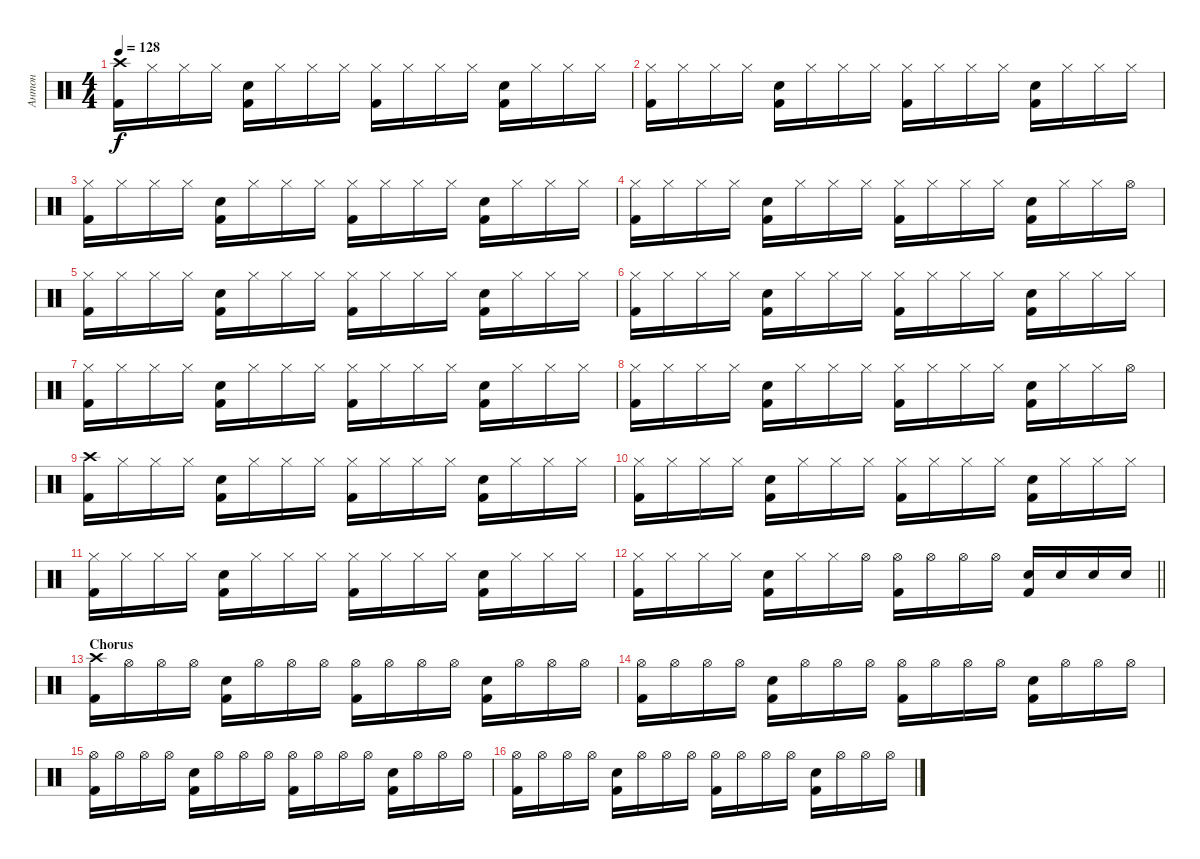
\track ("Антон" "Антон") {instrument percussion}
\staff {score}
\articulation defaults
\ts (4 4)
\tempo 128
\clef neutral
\ks c
("Crash high (hit)" "Kick (hit) 2").16{dy f} "Hi-Hat (closed)".16 "Hi-Hat (closed)".16 "Hi-Hat (closed)".16 ("Snare (hit) 2" "Kick (hit) 2").16 "Hi-Hat (closed)".16 "Hi-Hat (closed)".16 "Hi-Hat (closed)".16 ("Hi-Hat (closed)" "Kick (hit) 2").16 "Hi-Hat (closed)".16 "Hi-Hat (closed)".16 "Hi-Hat (closed)".16 ("Snare (hit) 2" "Kick (hit) 2").16 "Hi-Hat (closed)".16 "Hi-Hat (closed)".16 "Hi-Hat (closed)".16 |
("Hi-Hat (closed)" "Kick (hit) 2").16 "Hi-Hat (closed)".16 "Hi-Hat (closed)".16 "Hi-Hat (closed)".16 ("Snare (hit) 2" "Kick (hit) 2").16 "Hi-Hat (closed)".16 "Hi-Hat (closed)".16 "Hi-Hat (closed)".16 ("Hi-Hat (closed)" "Kick (hit) 2").16 "Hi-Hat (closed)".16 "Hi-Hat (closed)".16 "Hi-Hat (closed)".16 ("Snare (hit) 2" "Kick (hit) 2").16 "Hi-Hat (closed)".16 "Hi-Hat (closed)".16 "Hi-Hat (closed)".16 |
("Hi-Hat (closed)" "Kick (hit) 2").16 "Hi-Hat (closed)".16 "Hi-Hat (closed)".16 "Hi-Hat (closed)".16 ("Snare (hit) 2" "Kick (hit) 2").16 "Hi-Hat (closed)".16 "Hi-Hat (closed)".16 "Hi-Hat (closed)".16 ("Hi-Hat (closed)" "Kick (hit) 2").16 "Hi-Hat (closed)".16 "Hi-Hat (closed)".16 "Hi-Hat (closed)".16 ("Snare (hit) 2" "Kick (hit) 2").16 "Hi-Hat (closed)".16 "Hi-Hat (closed)".16 "Hi-Hat (closed)".16 |
("Hi-Hat (closed)" "Kick (hit) 2").16 "Hi-Hat (closed)".16 "Hi-Hat (closed)".16 "Hi-Hat (closed)".16 ("Snare (hit) 2" "Kick (hit) 2").16 "Hi-Hat (closed)".16 "Hi-Hat (closed)".16 "Hi-Hat (closed)".16 ("Hi-Hat (closed)" "Kick (hit) 2").16 "Hi-Hat (closed)".16 "Hi-Hat (closed)".16 "Hi-Hat (closed)".16 ("Snare (hit) 2" "Kick (hit) 2").16 "Hi-Hat (closed)".16 "Hi-Hat (closed)".16 "Hi-Hat (open)".16 |
("Hi-Hat (closed)" "Kick (hit) 2").16 "Hi-Hat (closed)".16 "Hi-Hat (closed)".16 "Hi-Hat (closed)".16 ("Snare (hit) 2" "Kick (hit) 2").16 "Hi-Hat (closed)".16 "Hi-Hat (closed)".16 "Hi-Hat (closed)".16 ("Hi-Hat (closed)" "Kick (hit) 2").16 "Hi-Hat (closed)".16 "Hi-Hat (closed)".16 "Hi-Hat (closed)".16 ("Snare (hit) 2" "Kick (hit) 2").16 "Hi-Hat (closed)".16 "Hi-Hat (closed)".16 "Hi-Hat (closed)".16 |
("Hi-Hat (closed)" "Kick (hit) 2").16 "Hi-Hat (closed)".16 "Hi-Hat (closed)".16 "Hi-Hat (closed)".16 ("Snare (hit) 2" "Kick (hit) 2").16 "Hi-Hat (closed)".16 "Hi-Hat (closed)".16 "Hi-Hat (closed)".16 ("Hi-Hat (closed)" "Kick (hit) 2").16 "Hi-Hat (closed)".16 "Hi-Hat (closed)".16 "Hi-Hat (closed)".16 ("Snare (hit) 2" "Kick (hit) 2").16 "Hi-Hat (closed)".16 "Hi-Hat (closed)".16 "Hi-Hat (closed)".16 |
("Hi-Hat (closed)" "Kick (hit) 2").16 "Hi-Hat (closed)".16 "Hi-Hat (closed)".16 "Hi-Hat (closed)".16 ("Snare (hit) 2" "Kick (hit) 2").16 "Hi-Hat (closed)".16 "Hi-Hat (closed)".16 "Hi-Hat (closed)".16 ("Hi-Hat (closed)" "Kick (hit) 2").16 "Hi-Hat (closed)".16 "Hi-Hat (closed)".16 "Hi-Hat (closed)".16 ("Snare (hit) 2" "Kick (hit) 2").16 "Hi-Hat (closed)".16 "Hi-Hat (closed)".16 "Hi-Hat (closed)".16 |
("Hi-Hat (closed)" "Kick (hit) 2").16 "Hi-Hat (closed)".16 "Hi-Hat (closed)".16 "Hi-Hat (closed)".16 ("Snare (hit) 2" "Kick (hit) 2").16 "Hi-Hat (closed)".16 "Hi-Hat (closed)".16 "Hi-Hat (closed)".16 ("Hi-Hat (closed)" "Kick (hit) 2").16 "Hi-Hat (closed)".16 "Hi-Hat (closed)".16 "Hi-Hat (closed)".16 ("Snare (hit) 2" "Kick (hit) 2").16 "Hi-Hat (closed)".16 "Hi-Hat (closed)".16 "Hi-Hat (open)".16 |
("Crash high (hit)" "Kick (hit) 2").16 "Hi-Hat (closed)".16 "Hi-Hat (closed)".16 "Hi-Hat (closed)".16 ("Snare (hit) 2" "Kick (hit) 2").16 "Hi-Hat (closed)".16 "Hi-Hat (closed)".16 "Hi-Hat (closed)".16 ("Hi-Hat (closed)" "Kick (hit) 2").16 "Hi-Hat (closed)".16 "Hi-Hat (closed)".16 "Hi-Hat (closed)".16 ("Snare (hit) 2" "Kick (hit) 2").16 "Hi-Hat (closed)".16 "Hi-Hat (closed)".16 "Hi-Hat (closed)".16 |
("Hi-Hat (closed)" "Kick (hit) 2").16 "Hi-Hat (closed)".16 "Hi-Hat (closed)".16 "Hi-Hat (closed)".16 ("Snare (hit) 2" "Kick (hit) 2").16 "Hi-Hat (closed)".16 "Hi-Hat (closed)".16 "Hi-Hat (closed)".16 ("Hi-Hat (closed)" "Kick (hit) 2").16 "Hi-Hat (closed)".16 "Hi-Hat (closed)".16 "Hi-Hat (closed)".16 ("Snare (hit) 2" "Kick (hit) 2").16 "Hi-Hat (closed)".16 "Hi-Hat (closed)".16 "Hi-Hat (closed)".16 |
("Hi-Hat (closed)" "Kick (hit) 2").16 "Hi-Hat (closed)".16 "Hi-Hat (closed)".16 "Hi-Hat (closed)".16 ("Snare (hit) 2" "Kick (hit) 2").16 "Hi-Hat (closed)".16 "Hi-Hat (closed)".16 "Hi-Hat (closed)".16 ("Hi-Hat (closed)" "Kick (hit) 2").16 "Hi-Hat (closed)".16 "Hi-Hat (closed)".16 "Hi-Hat (closed)".16 ("Snare (hit) 2" "Kick (hit) 2").16 "Hi-Hat (closed)".16 "Hi-Hat (closed)".16 "Hi-Hat (closed)".16 |
\barLineRight lightlight
("Hi-Hat (closed)" "Kick (hit) 2").16 "Hi-Hat (closed)".16 "Hi-Hat (closed)".16 "Hi-Hat (closed)".16 ("Snare (hit) 2" "Kick (hit) 2").16 "Hi-Hat (closed)".16 "Hi-Hat (closed)".16 "Hi-Hat (open)".16 ("Hi-Hat (open)" "Kick (hit) 2").16 "Hi-Hat (open)".16 "Hi-Hat (open)".16 "Hi-Hat (open)".16 ("Snare (hit) 2" "Kick (hit) 2").16 "Snare (hit) 2".16 "Snare (hit) 2".16 "Snare (hit) 2".16 |
\section ("" "Chorus")
("Crash high (hit)" "Kick (hit) 2").16 "Hi-Hat (open)".16 "Hi-Hat (open)".16 "Hi-Hat (open)".16 ("Snare (hit) 2" "Kick (hit) 2").16 "Hi-Hat (open)".16 "Hi-Hat (open)".16 "Hi-Hat (open)".16 ("Hi-Hat (open)" "Kick (hit) 2").16 "Hi-Hat (open)".16 "Hi-Hat (open)".16 "Hi-Hat (open)".16 ("Snare (hit) 2" "Kick (hit) 2").16 "Hi-Hat (open)".16 "Hi-Hat (open)".16 "Hi-Hat (open)".16 |
("Hi-Hat (open)" "Kick (hit) 2").16 "Hi-Hat (open)".16 "Hi-Hat (open)".16 "Hi-Hat (open)".16 ("Snare (hit) 2" "Kick (hit) 2").16 "Hi-Hat (open)".16 "Hi-Hat (open)".16 "Hi-Hat (open)".16 ("Hi-Hat (open)" "Kick (hit) 2").16 "Hi-Hat (open)".16 "Hi-Hat (open)".16 "Hi-Hat (open)".16 ("Snare (hit) 2" "Kick (hit) 2").16 "Hi-Hat (open)".16 "Hi-Hat (open)".16 "Hi-Hat (open)".16 |
("Hi-Hat (open)" "Kick (hit) 2").16 "Hi-Hat (open)".16 "Hi-Hat (open)".16 "Hi-Hat (open)".16 ("Snare (hit) 2" "Kick (hit) 2").16 "Hi-Hat (open)".16 "Hi-Hat (open)".16 "Hi-Hat (open)".16 ("Hi-Hat (open)" "Kick (hit) 2").16 "Hi-Hat (open)".16 "Hi-Hat (open)".16 "Hi-Hat (open)".16 ("Snare (hit) 2" "Kick (hit) 2").16 "Hi-Hat (open)".16 "Hi-Hat (open)".16 "Hi-Hat (open)".16 |
("Hi-Hat (open)" "Kick (hit) 2").16 "Hi-Hat (open)".16 "Hi-Hat (open)".16 "Hi-Hat (open)".16 ("Snare (hit) 2" "Kick (hit) 2").16 "Hi-Hat (open)".16 "Hi-Hat (open)".16 "Hi-Hat (open)".16 ("Hi-Hat (open)" "Kick (hit) 2").16 "Hi-Hat (open)".16 "Hi-Hat (open)".16 "Hi-Hat (open)".16 ("Snare (hit) 2" "Kick (hit) 2").16 "Hi-Hat (open)".16 "Hi-Hat (open)".16 "Hi-Hat (open)".16
